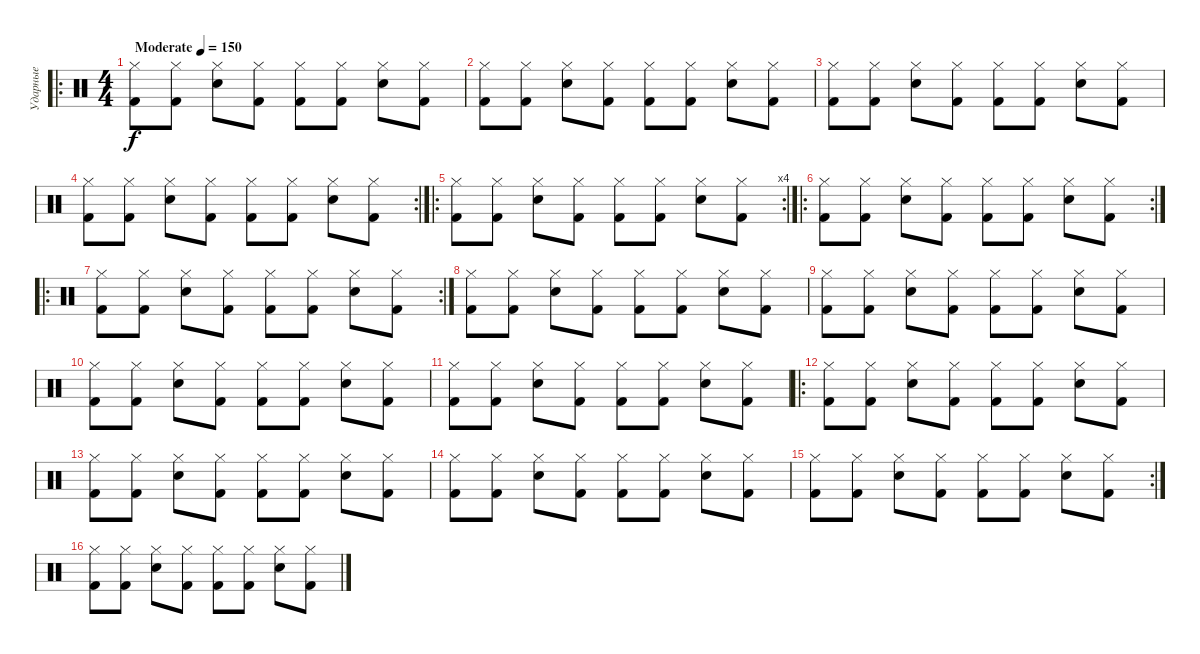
\track ("Ударные" "Ударные") {instrument percussion}
\staff {score}
\articulation defaults
\ro
\ts (4 4)
\tempo (150 "Moderate")
\clef neutral
\ks c
("Hi-Hat (closed)" "Kick (hit) 2").8{dy f} ("Hi-Hat (closed)" "Kick (hit) 2").8 ("Hi-Hat (closed)" "Snare (hit) 2").8 ("Hi-Hat (closed)" "Kick (hit) 2").8 ("Hi-Hat (closed)" "Kick (hit) 2").8 ("Hi-Hat (closed)" "Kick (hit) 2").8 ("Hi-Hat (closed)" "Snare (hit) 2").8 ("Hi-Hat (closed)" "Kick (hit) 2").8 |
("Hi-Hat (closed)" "Kick (hit) 2").8 ("Hi-Hat (closed)" "Kick (hit) 2").8 ("Hi-Hat (closed)" "Snare (hit) 2").8 ("Hi-Hat (closed)" "Kick (hit) 2").8 ("Hi-Hat (closed)" "Kick (hit) 2").8 ("Hi-Hat (closed)" "Kick (hit) 2").8 ("Hi-Hat (closed)" "Snare (hit) 2").8 ("Hi-Hat (closed)" "Kick (hit) 2").8 |
("Hi-Hat (closed)" "Kick (hit) 2").8 ("Hi-Hat (closed)" "Kick (hit) 2").8 ("Hi-Hat (closed)" "Snare (hit) 2").8 ("Hi-Hat (closed)" "Kick (hit) 2").8 ("Hi-Hat (closed)" "Kick (hit) 2").8 ("Hi-Hat (closed)" "Kick (hit) 2").8 ("Hi-Hat (closed)" "Snare (hit) 2").8 ("Hi-Hat (closed)" "Kick (hit) 2").8 |
\rc 2
("Hi-Hat (closed)" "Kick (hit) 2").8 ("Hi-Hat (closed)" "Kick (hit) 2").8 ("Hi-Hat (closed)" "Snare (hit) 2").8 ("Hi-Hat (closed)" "Kick (hit) 2").8 ("Hi-Hat (closed)" "Kick (hit) 2").8 ("Hi-Hat (closed)" "Kick (hit) 2").8 ("Hi-Hat (closed)" "Snare (hit) 2").8 ("Hi-Hat (closed)" "Kick (hit) 2").8 |
\ro
\rc 4
("Hi-Hat (closed)" "Kick (hit) 2").8 ("Hi-Hat (closed)" "Kick (hit) 2").8 ("Hi-Hat (closed)" "Snare (hit) 2").8 ("Hi-Hat (closed)" "Kick (hit) 2").8 ("Hi-Hat (closed)" "Kick (hit) 2").8 ("Hi-Hat (closed)" "Kick (hit) 2").8 ("Hi-Hat (closed)" "Snare (hit) 2").8 ("Hi-Hat (closed)" "Kick (hit) 2").8 |
\ro
\rc 2
("Hi-Hat (closed)" "Kick (hit) 2").8 ("Hi-Hat (closed)" "Kick (hit) 2").8 ("Hi-Hat (closed)" "Snare (hit) 2").8 ("Hi-Hat (closed)" "Kick (hit) 2").8 ("Hi-Hat (closed)" "Kick (hit) 2").8 ("Hi-Hat (closed)" "Kick (hit) 2").8 ("Hi-Hat (closed)" "Snare (hit) 2").8 ("Hi-Hat (closed)" "Kick (hit) 2").8 |
\ro
\rc 2
("Hi-Hat (closed)" "Kick (hit) 2").8 ("Hi-Hat (closed)" "Kick (hit) 2").8 ("Hi-Hat (closed)" "Snare (hit) 2").8 ("Hi-Hat (closed)" "Kick (hit) 2").8 ("Hi-Hat (closed)" "Kick (hit) 2").8 ("Hi-Hat (closed)" "Kick (hit) 2").8 ("Hi-Hat (closed)" "Snare (hit) 2").8 ("Hi-Hat (closed)" "Kick (hit) 2").8 |
("Hi-Hat (closed)" "Kick (hit) 2").8 ("Hi-Hat (closed)" "Kick (hit) 2").8 ("Hi-Hat (closed)" "Snare (hit) 2").8 ("Hi-Hat (closed)" "Kick (hit) 2").8 ("Hi-Hat (closed)" "Kick (hit) 2").8 ("Hi-Hat (closed)" "Kick (hit) 2").8 ("Hi-Hat (closed)" "Snare (hit) 2").8 ("Hi-Hat (closed)" "Kick (hit) 2").8 |
("Hi-Hat (closed)" "Kick (hit) 2").8 ("Hi-Hat (closed)" "Kick (hit) 2").8 ("Hi-Hat (closed)" "Snare (hit) 2").8 ("Hi-Hat (closed)" "Kick (hit) 2").8 ("Hi-Hat (closed)" "Kick (hit) 2").8 ("Hi-Hat (closed)" "Kick (hit) 2").8 ("Hi-Hat (closed)" "Snare (hit) 2").8 ("Hi-Hat (closed)" "Kick (hit) 2").8 |
("Hi-Hat (closed)" "Kick (hit) 2").8 ("Hi-Hat (closed)" "Kick (hit) 2").8 ("Hi-Hat (closed)" "Snare (hit) 2").8 ("Hi-Hat (closed)" "Kick (hit) 2").8 ("Hi-Hat (closed)" "Kick (hit) 2").8 ("Hi-Hat (closed)" "Kick (hit) 2").8 ("Hi-Hat (closed)" "Snare (hit) 2").8 ("Hi-Hat (closed)" "Kick (hit) 2").8 |
("Hi-Hat (closed)" "Kick (hit) 2").8 ("Hi-Hat (closed)" "Kick (hit) 2").8 ("Hi-Hat (closed)" "Snare (hit) 2").8 ("Hi-Hat (closed)" "Kick (hit) 2").8 ("Hi-Hat (closed)" "Kick (hit) 2").8 ("Hi-Hat (closed)" "Kick (hit) 2").8 ("Hi-Hat (closed)" "Snare (hit) 2").8 ("Hi-Hat (closed)" "Kick (hit) 2").8 |
\ro
("Hi-Hat (closed)" "Kick (hit) 2").8 ("Hi-Hat (closed)" "Kick (hit) 2").8 ("Hi-Hat (closed)" "Snare (hit) 2").8 ("Hi-Hat (closed)" "Kick (hit) 2").8 ("Hi-Hat (closed)" "Kick (hit) 2").8 ("Hi-Hat (closed)" "Kick (hit) 2").8 ("Hi-Hat (closed)" "Snare (hit) 2").8 ("Hi-Hat (closed)" "Kick (hit) 2").8 |
("Hi-Hat (closed)" "Kick (hit) 2").8 ("Hi-Hat (closed)" "Kick (hit) 2").8 ("Hi-Hat (closed)" "Snare (hit) 2").8 ("Hi-Hat (closed)" "Kick (hit) 2").8 ("Hi-Hat (closed)" "Kick (hit) 2").8 ("Hi-Hat (closed)" "Kick (hit) 2").8 ("Hi-Hat (closed)" "Snare (hit) 2").8 ("Hi-Hat (closed)" "Kick (hit) 2").8 |
("Hi-Hat (closed)" "Kick (hit) 2").8 ("Hi-Hat (closed)" "Kick (hit) 2").8 ("Hi-Hat (closed)" "Snare (hit) 2").8 ("Hi-Hat (closed)" "Kick (hit) 2").8 ("Hi-Hat (closed)" "Kick (hit) 2").8 ("Hi-Hat (closed)" "Kick (hit) 2").8 ("Hi-Hat (closed)" "Snare (hit) 2").8 ("Hi-Hat (closed)" "Kick (hit) 2").8 |
\rc 2
("Hi-Hat (closed)" "Kick (hit) 2").8 ("Hi-Hat (closed)" "Kick (hit) 2").8 ("Hi-Hat (closed)" "Snare (hit) 2").8 ("Hi-Hat (closed)" "Kick (hit) 2").8 ("Hi-Hat (closed)" "Kick (hit) 2").8 ("Hi-Hat (closed)" "Kick (hit) 2").8 ("Hi-Hat (closed)" "Snare (hit) 2").8 ("Hi-Hat (closed)" "Kick (hit) 2").8 |
("Hi-Hat (closed)" "Kick (hit) 2").8 ("Hi-Hat (closed)" "Kick (hit) 2").8 ("Hi-Hat (closed)" "Snare (hit) 2").8 ("Hi-Hat (closed)" "Kick (hit) 2").8 ("Hi-Hat (closed)" "Kick (hit) 2").8 ("Hi-Hat (closed)" "Kick (hit) 2").8 ("Hi-Hat (closed)" "Snare (hit) 2").8 ("Hi-Hat (closed)" "Kick (hit) 2").8
